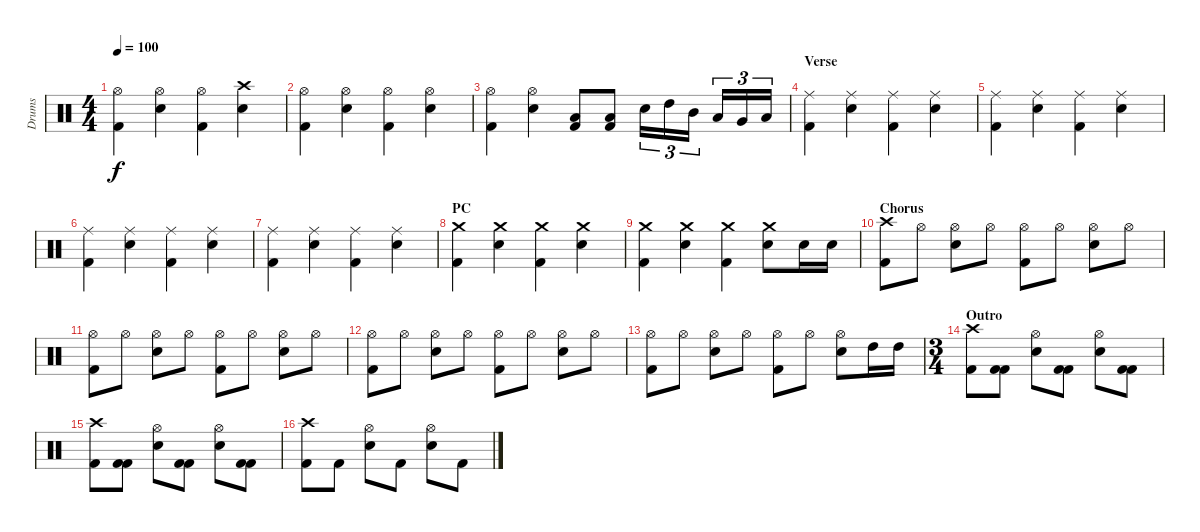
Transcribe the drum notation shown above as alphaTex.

\track ("Drums" "Drums") {instrument percussion}
\staff {score}
\articulation defaults
\ts (4 4)
\tempo 100
\clef neutral
\ks c
("Hi-Hat (open)" "Kick (hit) 2").4{dy f} ("Hi-Hat (open)" "Electric Snare (hit)").4 ("Hi-Hat (open)" "Kick (hit) 2").4 ("Crash high (hit)" "Electric Snare (hit)").4 |
("Hi-Hat (open)" "Kick (hit) 2").4 ("Hi-Hat (open)" "Electric Snare (hit)").4 ("Hi-Hat (open)" "Kick (hit) 2").4 ("Hi-Hat (open)" "Electric Snare (hit)").4 |
("Hi-Hat (open)" "Kick (hit) 2").4 ("Hi-Hat (open)" "Electric Snare (hit)").4 ("Low Floor Tom (hit)" "Kick (hit) 2").8 ("Low Floor Tom (hit)" "Kick (hit) 2").8 "Electric Snare (hit)".16{tu (3 2)} "High Tom (hit)".16{tu (3 2)} "Mid Tom (hit)".16{tu (3 2)} "Low Tom (hit)".16{tu (3 2)} "Very Low Tom (hit)".16{tu (3 2)} "Low Floor Tom (hit)".16{tu (3 2)} |
\section ("" "Verse")
("Ride (middle)" "Kick (hit) 2").4 ("Ride (middle)" "Electric Snare (hit)").4 ("Ride (middle)" "Kick (hit) 2").4 ("Ride (middle)" "Electric Snare (hit)").4 |
("Ride (middle)" "Kick (hit) 2").4 ("Ride (middle)" "Electric Snare (hit)").4 ("Ride (middle)" "Kick (hit) 2").4 ("Ride (middle)" "Electric Snare (hit)").4 |
("Ride (middle)" "Kick (hit) 2").4 ("Ride (middle)" "Electric Snare (hit)").4 ("Ride (middle)" "Kick (hit) 2").4 ("Ride (middle)" "Electric Snare (hit)").4 |
("Ride (middle)" "Kick (hit) 2").4 ("Ride (middle)" "Electric Snare (hit)").4 ("Ride (middle)" "Kick (hit) 2").4 ("Ride (middle)" "Electric Snare (hit)").4 |
\section ("" "PC")
("Crash medium (hit)" "Kick (hit) 2").4 ("Crash medium (hit)" "Electric Snare (hit)").4 ("Crash medium (hit)" "Kick (hit) 2").4 ("Crash medium (hit)" "Electric Snare (hit)").4 |
("Crash medium (hit)" "Kick (hit) 2").4 ("Crash medium (hit)" "Electric Snare (hit)").4 ("Crash medium (hit)" "Kick (hit) 2").4 ("Crash medium (hit)" "Electric Snare (hit)").8 "Electric Snare (hit)".16 "Electric Snare (hit)".16 |
\section ("" "Chorus")
("Crash high (hit)" "Kick (hit) 2").8 "Hi-Hat (open)".8 ("Hi-Hat (open)" "Electric Snare (hit)").8 "Hi-Hat (open)".8 ("Hi-Hat (open)" "Kick (hit) 2").8 "Hi-Hat (open)".8 ("Hi-Hat (open)" "Electric Snare (hit)").8 "Hi-Hat (open)".8 |
("Hi-Hat (open)" "Kick (hit) 2").8 "Hi-Hat (open)".8 ("Hi-Hat (open)" "Electric Snare (hit)").8 "Hi-Hat (open)".8 ("Hi-Hat (open)" "Kick (hit) 2").8 "Hi-Hat (open)".8 ("Hi-Hat (open)" "Electric Snare (hit)").8 "Hi-Hat (open)".8 |
("Hi-Hat (open)" "Kick (hit) 2").8 "Hi-Hat (open)".8 ("Hi-Hat (open)" "Electric Snare (hit)").8 "Hi-Hat (open)".8 ("Hi-Hat (open)" "Kick (hit) 2").8 "Hi-Hat (open)".8 ("Hi-Hat (open)" "Electric Snare (hit)").8 "Hi-Hat (open)".8 |
("Hi-Hat (open)" "Kick (hit) 2").8 "Hi-Hat (open)".8 ("Hi-Hat (open)" "Electric Snare (hit)").8 "Hi-Hat (open)".8 ("Hi-Hat (open)" "Kick (hit) 2").8 "Hi-Hat (open)".8 ("Hi-Hat (open)" "Electric Snare (hit)").8 "High Tom (hit)".16 "High Tom (hit)".16 |
\ts (3 4)
\section ("" "Outro")
("Crash high (hit)" "Kick (hit) 2").8 ("Kick (hit) 2" "Kick (hit) 2").8 ("Hi-Hat (open)" "Electric Snare (hit)").8 ("Kick (hit) 2" "Kick (hit) 2").8 ("Hi-Hat (open)" "Electric Snare (hit)").8 ("Kick (hit) 2" "Kick (hit) 2").8 |
("Crash high (hit)" "Kick (hit) 2").8 ("Kick (hit) 2" "Kick (hit) 2").8 ("Hi-Hat (open)" "Electric Snare (hit)").8 ("Kick (hit) 2" "Kick (hit) 2").8 ("Hi-Hat (open)" "Electric Snare (hit)").8 ("Kick (hit) 2" "Kick (hit) 2").8 |
("Crash high (hit)" "Kick (hit) 2").8 "Kick (hit) 2".8 ("Hi-Hat (open)" "Electric Snare (hit)").8 "Kick (hit) 2".8 ("Hi-Hat (open)" "Electric Snare (hit)").8 "Kick (hit) 2".8
